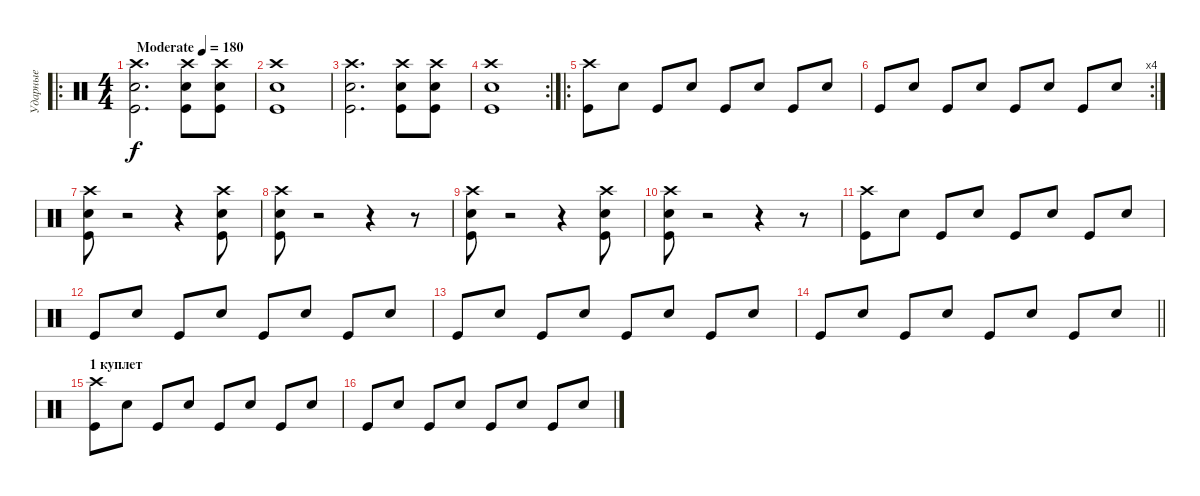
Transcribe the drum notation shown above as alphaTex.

\track ("Ударные" "Ударные") {instrument percussion}
\staff {score}
\articulation defaults
\ro
\ts (4 4)
\tempo (180 "Moderate")
\clef neutral
\ks c
("Crash high (hit)" "Snare (hit) 2" "Kick (hit)").2{d dy f} ("Crash high (hit)" "Snare (hit) 2" "Kick (hit)").8 ("Crash high (hit)" "Snare (hit) 2" "Kick (hit)").8 |
("Crash high (hit)" "Snare (hit) 2" "Kick (hit)").1 |
("Crash high (hit)" "Snare (hit) 2" "Kick (hit)").2{d} ("Crash high (hit)" "Snare (hit) 2" "Kick (hit)").8 ("Crash high (hit)" "Snare (hit) 2" "Kick (hit)").8 |
\rc 2
("Crash high (hit)" "Snare (hit) 2" "Kick (hit)").1 |
\ro
("Crash high (hit)" "Kick (hit)").8 "Snare (hit) 2".8 "Kick (hit)".8 "Snare (hit) 2".8 "Kick (hit)".8 "Snare (hit) 2".8 "Kick (hit)".8 "Snare (hit) 2".8 |
\rc 4 "Kick (hit)".8 "Snare (hit) 2".8 "Kick (hit)".8 "Snare (hit) 2".8 "Kick (hit)".8 "Snare (hit) 2".8 "Kick (hit)".8 "Snare (hit) 2".8
|
("Crash high (hit)" "Snare (hit) 2" "Kick (hit)").8 r.2 r.4 ("Crash high (hit)" "Snare (hit) 2" "Kick (hit)").8 |
("Crash high (hit)" "Snare (hit) 2" "Kick (hit)").8 r.2 r.4 r.8 |
("Crash high (hit)" "Snare (hit) 2" "Kick (hit)").8 r.2 r.4 ("Crash high (hit)" "Snare (hit) 2" "Kick (hit)").8 |
("Crash high (hit)" "Snare (hit) 2" "Kick (hit)").8 r.2 r.4 r.8 |
("Crash high (hit)" "Kick (hit)").8 "Snare (hit) 2".8 "Kick (hit)".8 "Snare (hit) 2".8 "Kick (hit)".8 "Snare (hit) 2".8 "Kick (hit)".8 "Snare (hit) 2".8 |
"Kick (hit)".8 "Snare (hit) 2".8 "Kick (hit)".8 "Snare (hit) 2".8 "Kick (hit)".8 "Snare (hit) 2".8 "Kick (hit)".8 "Snare (hit) 2".8 |
"Kick (hit)".8 "Snare (hit) 2".8 "Kick (hit)".8 "Snare (hit) 2".8 "Kick (hit)".8 "Snare (hit) 2".8 "Kick (hit)".8 "Snare (hit) 2".8 |
\barLineRight lightlight "Kick (hit)".8 "Snare (hit) 2".8 "Kick (hit)".8 "Snare (hit) 2".8 "Kick (hit)".8 "Snare (hit) 2".8 "Kick (hit)".8 "Snare (hit) 2".8
|
\section ("" "1 куплет")
("Crash high (hit)" "Kick (hit)").8 "Snare (hit) 2".8 "Kick (hit)".8 "Snare (hit) 2".8 "Kick (hit)".8 "Snare (hit) 2".8 "Kick (hit)".8 "Snare (hit) 2".8 |
"Kick (hit)".8 "Snare (hit) 2".8 "Kick (hit)".8 "Snare (hit) 2".8 "Kick (hit)".8 "Snare (hit) 2".8 "Kick (hit)".8 "Snare (hit) 2".8
